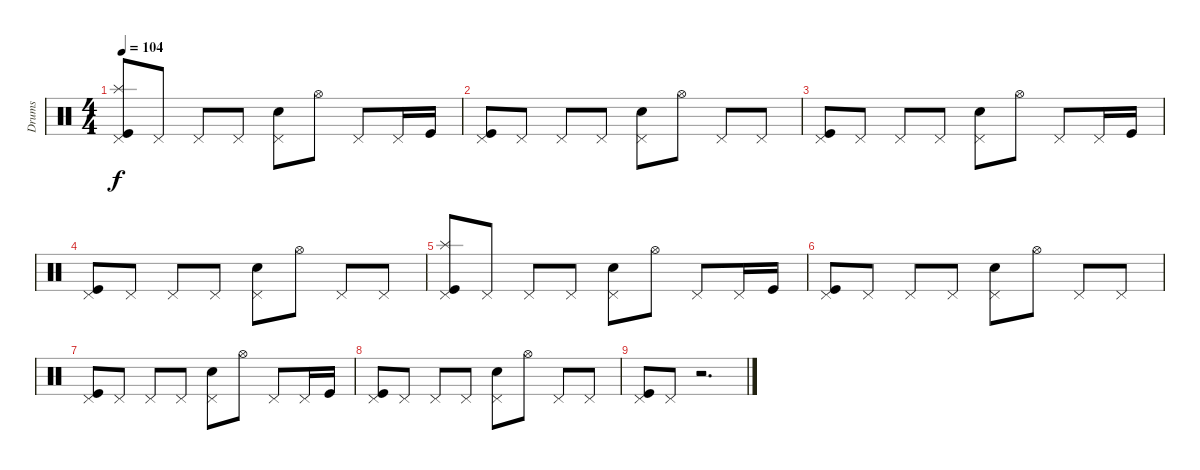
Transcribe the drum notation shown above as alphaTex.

\track ("Drums" "Drums") {instrument percussion}
\staff {score}
\articulation defaults
\ts (4 4)
\tempo 104
\clef neutral
\ks c
("Pedal Hi-Hat (hit)" "Splash (hit)" "Kick (hit)").8{dy f} "Pedal Hi-Hat (hit)".8 "Pedal Hi-Hat (hit)".8 "Pedal Hi-Hat (hit)".8 ("Pedal Hi-Hat (hit)" "Snare (hit) 2").8 "Hi-Hat (open)".8 "Pedal Hi-Hat (hit)".8 "Pedal Hi-Hat (hit)".16 "Kick (hit)".16 |
("Pedal Hi-Hat (hit)" "Kick (hit)").8 "Pedal Hi-Hat (hit)".8 "Pedal Hi-Hat (hit)".8 "Pedal Hi-Hat (hit)".8 ("Pedal Hi-Hat (hit)" "Snare (hit) 2").8 "Hi-Hat (open)".8 "Pedal Hi-Hat (hit)".8 "Pedal Hi-Hat (hit)".8 |
("Pedal Hi-Hat (hit)" "Kick (hit)").8 "Pedal Hi-Hat (hit)".8 "Pedal Hi-Hat (hit)".8 "Pedal Hi-Hat (hit)".8 ("Pedal Hi-Hat (hit)" "Snare (hit) 2").8 "Hi-Hat (open)".8 "Pedal Hi-Hat (hit)".8 "Pedal Hi-Hat (hit)".16 "Kick (hit)".16 |
("Pedal Hi-Hat (hit)" "Kick (hit)").8 "Pedal Hi-Hat (hit)".8 "Pedal Hi-Hat (hit)".8 "Pedal Hi-Hat (hit)".8 ("Pedal Hi-Hat (hit)" "Snare (hit) 2").8 "Hi-Hat (open)".8 "Pedal Hi-Hat (hit)".8 "Pedal Hi-Hat (hit)".8 |
("Pedal Hi-Hat (hit)" "Splash (hit)" "Kick (hit)").8 "Pedal Hi-Hat (hit)".8 "Pedal Hi-Hat (hit)".8 "Pedal Hi-Hat (hit)".8 ("Pedal Hi-Hat (hit)" "Snare (hit) 2").8 "Hi-Hat (open)".8 "Pedal Hi-Hat (hit)".8 "Pedal Hi-Hat (hit)".16 "Kick (hit)".16 |
("Pedal Hi-Hat (hit)" "Kick (hit)").8 "Pedal Hi-Hat (hit)".8 "Pedal Hi-Hat (hit)".8 "Pedal Hi-Hat (hit)".8 ("Pedal Hi-Hat (hit)" "Snare (hit) 2").8 "Hi-Hat (open)".8 "Pedal Hi-Hat (hit)".8 "Pedal Hi-Hat (hit)".8 |
("Pedal Hi-Hat (hit)" "Kick (hit)").8 "Pedal Hi-Hat (hit)".8 "Pedal Hi-Hat (hit)".8 "Pedal Hi-Hat (hit)".8 ("Pedal Hi-Hat (hit)" "Snare (hit) 2").8 "Hi-Hat (open)".8 "Pedal Hi-Hat (hit)".8 "Pedal Hi-Hat (hit)".16 "Kick (hit)".16 |
("Pedal Hi-Hat (hit)" "Kick (hit)").8 "Pedal Hi-Hat (hit)".8 "Pedal Hi-Hat (hit)".8 "Pedal Hi-Hat (hit)".8 ("Pedal Hi-Hat (hit)" "Snare (hit) 2").8 "Hi-Hat (open)".8 "Pedal Hi-Hat (hit)".8 "Pedal Hi-Hat (hit)".8 |
("Pedal Hi-Hat (hit)" "Kick (hit)").8 "Pedal Hi-Hat (hit)".8 r.2{d}
